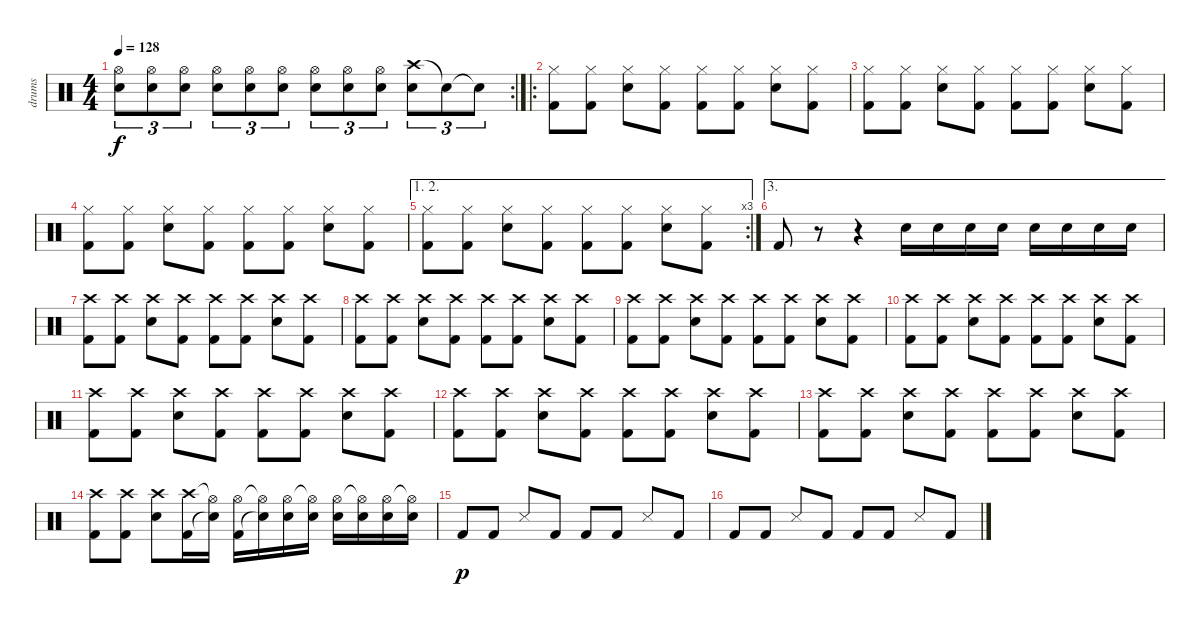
\track ("drums" "drums") {instrument percussion}
\staff {score}
\articulation defaults
\rc 2
\ts (4 4)
\tempo 128
\clef neutral
\ks c
("Hi-Hat (open)" "Electric Snare (hit)").8{tu (3 2) dy f} ("Hi-Hat (open)" "Electric Snare (hit)").8{tu (3 2)} ("Hi-Hat (open)" "Electric Snare (hit)").8{tu (3 2)} ("Hi-Hat (open)" "Electric Snare (hit)").8{tu (3 2)} ("Hi-Hat (open)" "Electric Snare (hit)").8{tu (3 2)} ("Hi-Hat (open)" "Electric Snare (hit)").8{tu (3 2)} ("Hi-Hat (open)" "Electric Snare (hit)").8{tu (3 2)} ("Hi-Hat (open)" "Electric Snare (hit)").8{tu (3 2)} ("Hi-Hat (open)" "Electric Snare (hit)").8{tu (3 2)} ("Crash high (hit)" "Electric Snare (hit)").8{tu (3 2)} "Snare (hit)"{t}.8{tu (3 2)} "Snare (hit)"{t}.8{tu (3 2)} |
\ro
("Hi-Hat (closed)" "Kick (hit) 2").8 ("Hi-Hat (closed)" "Kick (hit) 2").8 ("Hi-Hat (closed)" "Electric Snare (hit)").8 ("Hi-Hat (closed)" "Kick (hit) 2").8 ("Hi-Hat (closed)" "Kick (hit) 2").8 ("Hi-Hat (closed)" "Kick (hit) 2").8 ("Hi-Hat (closed)" "Electric Snare (hit)").8 ("Hi-Hat (closed)" "Kick (hit) 2").8 |
("Hi-Hat (closed)" "Kick (hit) 2").8 ("Hi-Hat (closed)" "Kick (hit) 2").8 ("Hi-Hat (closed)" "Electric Snare (hit)").8 ("Hi-Hat (closed)" "Kick (hit) 2").8 ("Hi-Hat (closed)" "Kick (hit) 2").8 ("Hi-Hat (closed)" "Kick (hit) 2").8 ("Hi-Hat (closed)" "Electric Snare (hit)").8 ("Hi-Hat (closed)" "Kick (hit) 2").8 |
("Hi-Hat (closed)" "Kick (hit) 2").8 ("Hi-Hat (closed)" "Kick (hit) 2").8 ("Hi-Hat (closed)" "Electric Snare (hit)").8 ("Hi-Hat (closed)" "Kick (hit) 2").8 ("Hi-Hat (closed)" "Kick (hit) 2").8 ("Hi-Hat (closed)" "Kick (hit) 2").8 ("Hi-Hat (closed)" "Electric Snare (hit)").8 ("Hi-Hat (closed)" "Kick (hit) 2").8 |
\ae (1 2)
\rc 3
("Hi-Hat (closed)" "Kick (hit) 2").8 ("Hi-Hat (closed)" "Kick (hit) 2").8 ("Hi-Hat (closed)" "Electric Snare (hit)").8 ("Hi-Hat (closed)" "Kick (hit) 2").8 ("Hi-Hat (closed)" "Kick (hit) 2").8 ("Hi-Hat (closed)" "Kick (hit) 2").8 ("Hi-Hat (closed)" "Electric Snare (hit)").8 ("Hi-Hat (closed)" "Kick (hit) 2").8 |
\ae 3 "Kick (hit) 2".8
r.8 r.4 "Electric Snare (hit)".16 "Electric Snare (hit)".16 "Electric Snare (hit)".16 "Electric Snare (hit)".16 "Electric Snare (hit)".16 "Electric Snare (hit)".16 "Electric Snare (hit)".16 "Electric Snare (hit)".16 |
("Crash high (hit)" "Kick (hit) 2").8 ("Crash high (hit)" "Kick (hit) 2").8 ("Crash high (hit)" "Electric Snare (hit)").8 ("Crash high (hit)" "Kick (hit) 2").8 ("Crash high (hit)" "Kick (hit) 2").8 ("Crash high (hit)" "Kick (hit) 2").8 ("Crash high (hit)" "Electric Snare (hit)").8 ("Crash high (hit)" "Kick (hit) 2").8 |
("Crash high (hit)" "Kick (hit) 2").8 ("Crash high (hit)" "Kick (hit) 2").8 ("Crash high (hit)" "Electric Snare (hit)").8 ("Crash high (hit)" "Kick (hit) 2").8 ("Crash high (hit)" "Kick (hit) 2").8 ("Crash high (hit)" "Kick (hit) 2").8 ("Crash high (hit)" "Electric Snare (hit)").8 ("Crash high (hit)" "Kick (hit) 2").8 |
("Crash high (hit)" "Kick (hit) 2").8 ("Crash high (hit)" "Kick (hit) 2").8 ("Crash high (hit)" "Electric Snare (hit)").8 ("Crash high (hit)" "Kick (hit) 2").8 ("Crash high (hit)" "Kick (hit) 2").8 ("Crash high (hit)" "Kick (hit) 2").8 ("Crash high (hit)" "Electric Snare (hit)").8 ("Crash high (hit)" "Kick (hit) 2").8 |
("Crash high (hit)" "Kick (hit) 2").8 ("Crash high (hit)" "Kick (hit) 2").8 ("Crash high (hit)" "Electric Snare (hit)").8 ("Crash high (hit)" "Kick (hit) 2").8 ("Crash high (hit)" "Kick (hit) 2").8 ("Crash high (hit)" "Kick (hit) 2").8 ("Crash high (hit)" "Electric Snare (hit)").8 ("Crash high (hit)" "Kick (hit) 2").8 |
("Crash high (hit)" "Kick (hit) 2").8 ("Crash high (hit)" "Kick (hit) 2").8 ("Crash high (hit)" "Electric Snare (hit)").8 ("Crash high (hit)" "Kick (hit) 2").8 ("Crash high (hit)" "Kick (hit) 2").8 ("Crash high (hit)" "Kick (hit) 2").8 ("Crash high (hit)" "Electric Snare (hit)").8 ("Crash high (hit)" "Kick (hit) 2").8 |
("Crash high (hit)" "Kick (hit) 2").8 ("Crash high (hit)" "Kick (hit) 2").8 ("Crash high (hit)" "Electric Snare (hit)").8 ("Crash high (hit)" "Kick (hit) 2").8 ("Crash high (hit)" "Kick (hit) 2").8 ("Crash high (hit)" "Kick (hit) 2").8 ("Crash high (hit)" "Electric Snare (hit)").8 ("Crash high (hit)" "Kick (hit) 2").8 |
("Crash high (hit)" "Kick (hit) 2").8 ("Crash high (hit)" "Kick (hit) 2").8 ("Crash high (hit)" "Electric Snare (hit)").8 ("Crash high (hit)" "Kick (hit) 2").8 ("Crash high (hit)" "Kick (hit) 2").8 ("Crash high (hit)" "Kick (hit) 2").8 ("Crash high (hit)" "Electric Snare (hit)").8 ("Crash high (hit)" "Kick (hit) 2").8 |
("Crash high (hit)" "Kick (hit) 2").8 ("Crash high (hit)" "Kick (hit) 2").8 ("Crash high (hit)" "Electric Snare (hit)").8 ("Crash high (hit)" "Kick (hit) 2").16 ("Hi-Hat (open)"{t} "Electric Snare (hit)"{t}).16 ("Hi-Hat (open)" "Kick (hit) 2").16 ("Hi-Hat (open)"{t} "Electric Snare (hit)"{t}).16 ("Hi-Hat (open)" "Electric Snare (hit)").16 ("Hi-Hat (open)"{t} "Electric Snare (hit)").16 ("Hi-Hat (open)" "Electric Snare (hit)").16 ("Hi-Hat (open)"{t} "Electric Snare (hit)").16 ("Hi-Hat (open)" "Electric Snare (hit)").16 ("Hi-Hat (open)"{t} "Electric Snare (hit)").16 |
"Kick (hit) 2".8{dy p} "Kick (hit) 2".8 "Snare (side stick) 3".8 "Kick (hit) 2".8 "Kick (hit) 2".8 "Kick (hit) 2".8 "Snare (side stick) 3".8 "Kick (hit) 2".8 |
"Kick (hit) 2".8 "Kick (hit) 2".8 "Snare (side stick) 3".8 "Kick (hit) 2".8 "Kick (hit) 2".8 "Kick (hit) 2".8 "Snare (side stick) 3".8 "Kick (hit) 2".8
